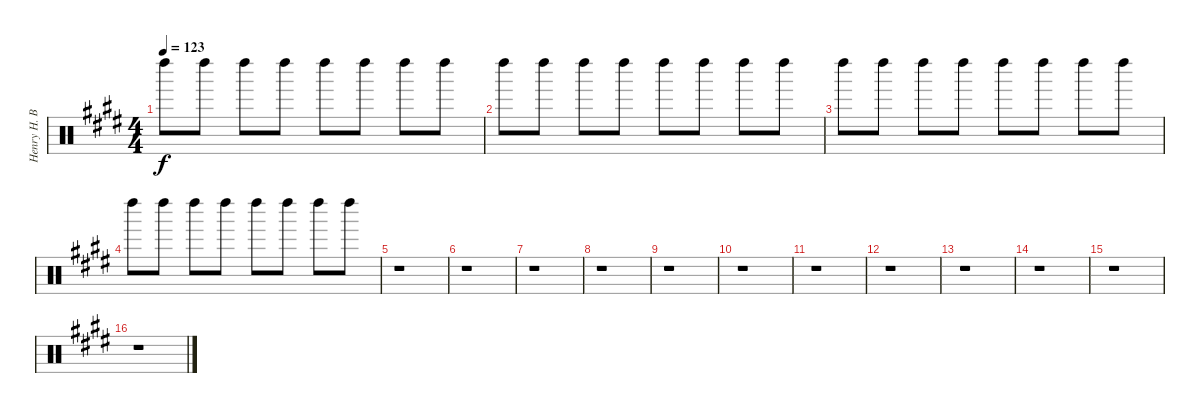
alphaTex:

\track ("Henry H. Bomb Weck Maracas" "Henry H. B") {instrument percussion}
\staff {score}
\articulation defaults
\ts (4 4)
\tempo 123
\clef neutral
\ks e "Left Maraca (hit)".8{dy f} "Left Maraca (hit)".8 "Left Maraca (hit)".8 "Left Maraca (hit)".8 "Left Maraca (hit)".8 "Left Maraca (hit)".8 "Left Maraca (hit)".8 "Left Maraca (hit)".8
|
"Left Maraca (hit)".8 "Left Maraca (hit)".8 "Left Maraca (hit)".8 "Left Maraca (hit)".8 "Left Maraca (hit)".8 "Left Maraca (hit)".8 "Left Maraca (hit)".8 "Left Maraca (hit)".8 |
"Left Maraca (hit)".8 "Left Maraca (hit)".8 "Left Maraca (hit)".8 "Left Maraca (hit)".8 "Left Maraca (hit)".8 "Left Maraca (hit)".8 "Left Maraca (hit)".8 "Left Maraca (hit)".8 |
"Left Maraca (hit)".8 "Left Maraca (hit)".8 "Left Maraca (hit)".8 "Left Maraca (hit)".8 "Left Maraca (hit)".8 "Left Maraca (hit)".8 "Left Maraca (hit)".8 "Left Maraca (hit)".8 |
r.1 |
r.1 |
r.1 |
r.1 |
r.1 |
r.1 |
r.1 |
r.1 |
r.1 |
r.1 |
r.1 |
r.1
